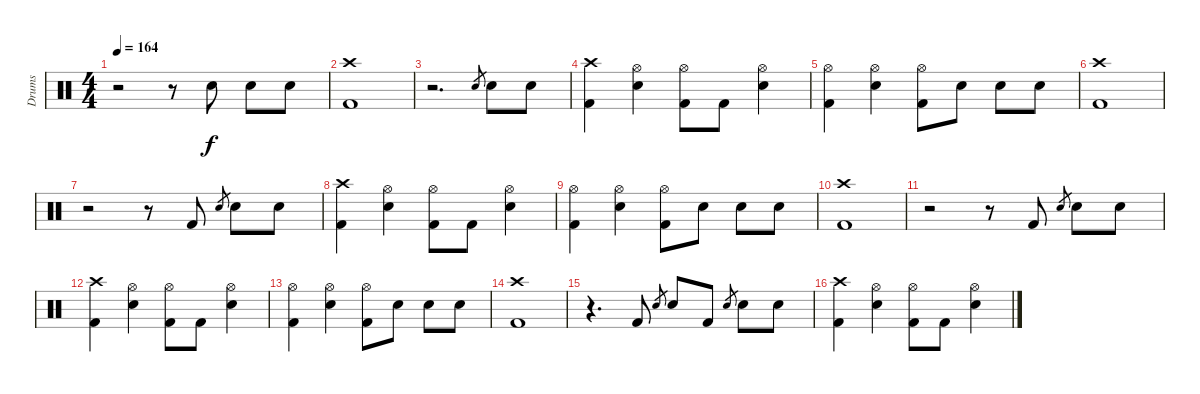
\track ("Drums" "Drums") {instrument percussion}
\staff {score}
\articulation defaults
\ts (4 4)
\tempo 164
\clef neutral
\ks c
r.2{dy f} r.8 "Snare (hit) 2".8 "Snare (hit) 2".8 "Snare (hit) 2".8 |
("Kick (hit) 2" "Crash high (hit)").1 |
r.2{d} "Snare (hit) 2".8{gr} "Snare (hit) 2".8 "Snare (hit) 2".8 |
("Kick (hit) 2" "Crash high (hit)").4 ("Snare (hit) 2" "Hi-Hat (open)").4 ("Kick (hit) 2" "Hi-Hat (open)").8 "Kick (hit) 2".8 ("Snare (hit) 2" "Hi-Hat (open)").4 |
("Kick (hit) 2" "Hi-Hat (open)").4 ("Snare (hit) 2" "Hi-Hat (open)").4 ("Kick (hit) 2" "Hi-Hat (open)").8 "Snare (hit) 2".8 "Snare (hit) 2".8 "Snare (hit) 2".8 |
("Kick (hit) 2" "Crash high (hit)").1 |
r.2 r.8 "Kick (hit) 2".8 "Snare (hit) 2".8{gr} "Snare (hit) 2".8 "Snare (hit) 2".8 |
("Kick (hit) 2" "Crash high (hit)").4 ("Snare (hit) 2" "Hi-Hat (open)").4 ("Kick (hit) 2" "Hi-Hat (open)").8 "Kick (hit) 2".8 ("Snare (hit) 2" "Hi-Hat (open)").4 |
("Kick (hit) 2" "Hi-Hat (open)").4 ("Snare (hit) 2" "Hi-Hat (open)").4 ("Kick (hit) 2" "Hi-Hat (open)").8 "Snare (hit) 2".8 "Snare (hit) 2".8 "Snare (hit) 2".8 |
("Kick (hit) 2" "Crash high (hit)").1 |
r.2 r.8 "Kick (hit) 2".8 "Snare (hit) 2".8{gr} "Snare (hit) 2".8 "Snare (hit) 2".8 |
("Kick (hit) 2" "Crash high (hit)").4 ("Snare (hit) 2" "Hi-Hat (open)").4 ("Kick (hit) 2" "Hi-Hat (open)").8 "Kick (hit) 2".8 ("Snare (hit) 2" "Hi-Hat (open)").4 |
("Kick (hit) 2" "Hi-Hat (open)").4 ("Snare (hit) 2" "Hi-Hat (open)").4 ("Kick (hit) 2" "Hi-Hat (open)").8 "Snare (hit) 2".8 "Snare (hit) 2".8 "Snare (hit) 2".8 |
("Kick (hit) 2" "Crash high (hit)").1 |
r.4{d} "Kick (hit) 2".8 "Snare (hit) 2".8{gr} "Snare (hit) 2".8 "Kick (hit) 2".8 "Snare (hit) 2".8{gr} "Snare (hit) 2".8 "Snare (hit) 2".8 |
("Kick (hit) 2" "Crash high (hit)").4 ("Snare (hit) 2" "Hi-Hat (open)").4 ("Kick (hit) 2" "Hi-Hat (open)").8 "Kick (hit) 2".8 ("Snare (hit) 2" "Hi-Hat (open)").4
